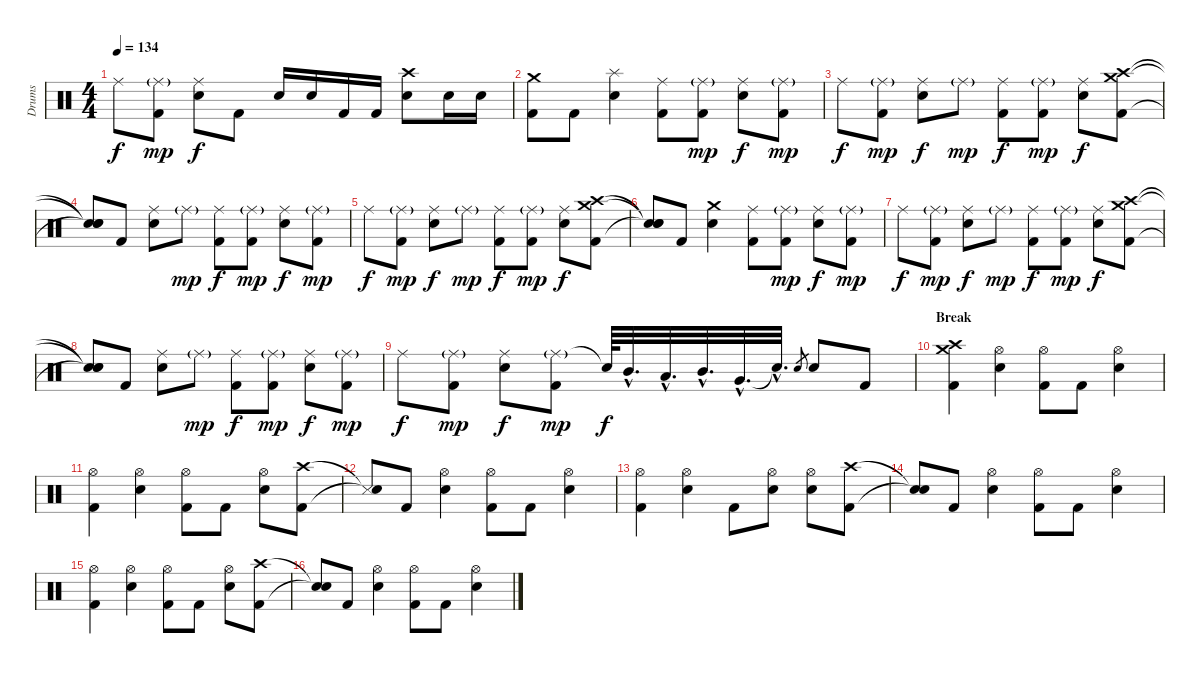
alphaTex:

\track ("Drums" "Drums") {instrument percussion}
\staff {score}
\articulation defaults
\ts (4 4)
\tempo 134
\clef neutral
\ks c "Ride (middle)".8{dy f}
("Ride (middle)"{g} "Kick (hit) 2").8{dy mp} ("Ride (middle)" "Snare (hit) 2").8{dy f} "Kick (hit) 2".8 "Snare (hit) 2".16 "Snare (hit) 2".16 "Kick (hit) 2".16 "Kick (hit) 2".16 ("Crash high (hit)" "Snare (hit) 2").8 "Snare (hit) 2".16 "Snare (hit) 2".16 |
("Crash medium (hit)" "Kick (hit) 2").8 "Kick (hit) 2".8 ("Splash (hit)" "Snare (hit) 2").4 ("Ride (middle)" "Kick (hit) 2").8 ("Ride (middle)"{g} "Kick (hit) 2").8{dy mp} ("Ride (middle)" "Snare (hit) 2").8{dy f} ("Ride (middle)"{g} "Kick (hit) 2").8{dy mp} |
"Ride (middle)".8{dy f} ("Ride (middle)"{g} "Kick (hit) 2").8{dy mp} ("Ride (middle)" "Snare (hit) 2").8{dy f} "Ride (middle)"{g}.8{dy mp} ("Ride (middle)" "Kick (hit) 2").8{dy f} ("Ride (middle)"{g} "Kick (hit) 2").8{dy mp} ("Ride (middle)" "Snare (hit) 2").8{dy f} ("Crash medium (hit)" "Crash high (hit)" "Kick (hit) 2").8 |
("Snare (hit)"{t} "Snare (hit)"{t} "Snare (hit)"{t}).8 "Kick (hit) 2".8 ("Ride (middle)" "Snare (hit) 2").8 "Ride (middle)"{g}.8{dy mp} ("Ride (middle)" "Kick (hit) 2").8{dy f} ("Ride (middle)"{g} "Kick (hit) 2").8{dy mp} ("Ride (middle)" "Snare (hit) 2").8{dy f} ("Ride (middle)"{g} "Kick (hit) 2").8{dy mp} |
"Ride (middle)".8{dy f} ("Ride (middle)"{g} "Kick (hit) 2").8{dy mp} ("Ride (middle)" "Snare (hit) 2").8{dy f} "Ride (middle)"{g}.8{dy mp} ("Ride (middle)" "Kick (hit) 2").8{dy f} ("Ride (middle)"{g} "Kick (hit) 2").8{dy mp} ("Ride (middle)" "Snare (hit) 2").8{dy f} ("Crash medium (hit)" "Crash high (hit)" "Kick (hit) 2").8 |
("Snare (hit)"{t} "Snare (hit)"{t} "Snare (hit)"{t}).8 "Kick (hit) 2".8 ("Crash medium (hit)" "Snare (hit) 2").4 ("Ride (middle)" "Kick (hit) 2").8 ("Ride (middle)"{g} "Kick (hit) 2").8{dy mp} ("Ride (middle)" "Snare (hit) 2").8{dy f} ("Ride (middle)"{g} "Kick (hit) 2").8{dy mp} |
"Ride (middle)".8{dy f} ("Ride (middle)"{g} "Kick (hit) 2").8{dy mp} ("Ride (middle)" "Snare (hit) 2").8{dy f} "Ride (middle)"{g}.8{dy mp} ("Ride (middle)" "Kick (hit) 2").8{dy f} ("Ride (middle)"{g} "Kick (hit) 2").8{dy mp} ("Ride (middle)" "Snare (hit) 2").8{dy f} ("Crash medium (hit)" "Crash high (hit)" "Kick (hit) 2").8 |
("Snare (hit)"{t} "Snare (hit)"{t} "Snare (hit)"{t}).8 "Kick (hit) 2".8 ("Ride (middle)" "Snare (hit) 2").8 "Ride (middle)"{g}.8{dy mp} ("Ride (middle)" "Kick (hit) 2").8{dy f} ("Ride (middle)"{g} "Kick (hit) 2").8{dy mp} ("Ride (middle)" "Snare (hit) 2").8{dy f} ("Ride (middle)"{g} "Kick (hit) 2").8{dy mp} |
"Ride (middle)".8{dy f} ("Ride (middle)"{g} "Kick (hit) 2").8{dy mp} ("Ride (middle)" "Snare (hit) 2").8{dy f} ("Ride (middle)"{g} "Kick (hit) 2").8{dy mp} "Snare (hit)"{t}.64{dy f} "Mid Tom (hit)"{hac}.32{d} "Low Tom (hit)"{hac}.32{d} "Mid Tom (hit)"{hac}.32{d} "Very Low Tom (hit)"{hac}.32{d} "Snare (hit)"{hac t}.32{d} "Snare (hit) 2".8{gr} "Snare (hit) 2".8 "Kick (hit) 2".8 |
\section ("" "Break")
("Crash medium (hit)" "Crash high (hit)" "Kick (hit) 2").4 ("Hi-Hat (open)" "Snare (hit) 2").4 ("Hi-Hat (open)" "Kick (hit) 2").8 "Kick (hit) 2".8 ("Hi-Hat (open)" "Snare (hit) 2").4 |
("Hi-Hat (open)" "Kick (hit) 2").4 ("Hi-Hat (open)" "Snare (hit) 2").4 ("Hi-Hat (open)" "Kick (hit) 2").8 "Kick (hit) 2".8 ("Hi-Hat (open)" "Snare (hit) 2").8 ("Crash high (hit)" "Kick (hit) 2").8 |
("Metronome (hit)"{t} "Snare (hit)"{t}).8 "Kick (hit) 2".8 ("Hi-Hat (open)" "Snare (hit) 2").4 ("Hi-Hat (open)" "Kick (hit) 2").8 "Kick (hit) 2".8 ("Hi-Hat (open)" "Snare (hit) 2").4 |
("Hi-Hat (open)" "Kick (hit) 2").4 ("Hi-Hat (open)" "Snare (hit) 2").4 "Kick (hit) 2".8 ("Hi-Hat (open)" "Snare (hit) 2").8 ("Hi-Hat (open)" "Snare (hit) 2").8 ("Crash high (hit)" "Kick (hit) 2").8 |
("Snare (hit)"{t} "Snare (hit)"{t}).8 "Kick (hit) 2".8 ("Hi-Hat (open)" "Snare (hit) 2").4 ("Hi-Hat (open)" "Kick (hit) 2").8 "Kick (hit) 2".8 ("Hi-Hat (open)" "Snare (hit) 2").4 |
("Hi-Hat (open)" "Kick (hit) 2").4 ("Hi-Hat (open)" "Snare (hit) 2").4 ("Hi-Hat (open)" "Kick (hit) 2").8 "Kick (hit) 2".8 ("Hi-Hat (open)" "Snare (hit) 2").8 ("Crash high (hit)" "Kick (hit) 2").8 |
("Snare (hit)"{t} "Snare (hit)"{t}).8 "Kick (hit) 2".8 ("Hi-Hat (open)" "Snare (hit) 2").4 ("Hi-Hat (open)" "Kick (hit) 2").8 "Kick (hit) 2".8 ("Hi-Hat (open)" "Snare (hit) 2").4
